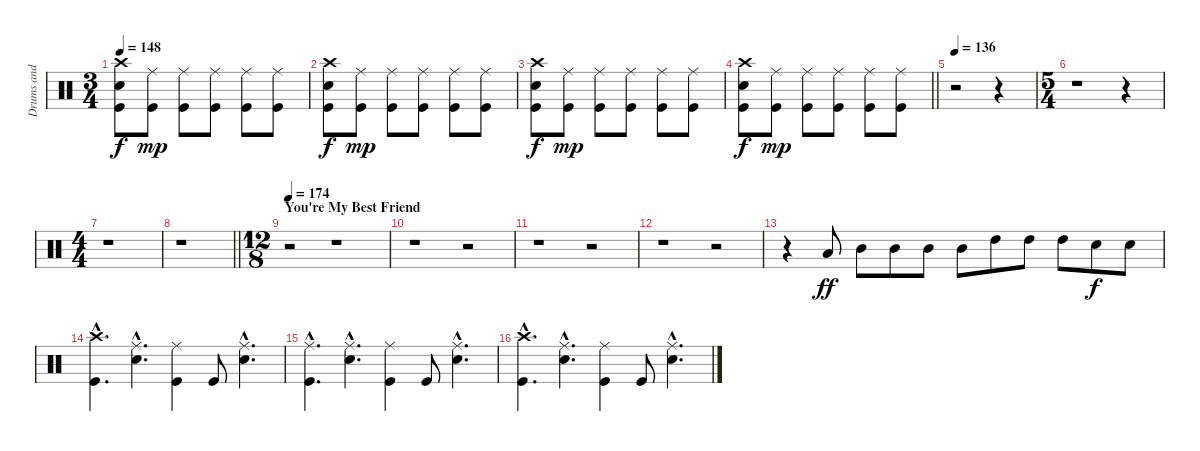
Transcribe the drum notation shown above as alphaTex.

\track ("Drums and percussion" "Drums and ") {instrument percussion}
\staff {score}
\articulation defaults
\ts (3 4)
\tempo 148
\clef neutral
\ks c
("Kick (hit)" "Electric Snare (hit)" "Crash high (hit)").8{dy f} ("Kick (hit)" "Ride (middle)").8{dy mp} ("Kick (hit)" "Ride (middle)").8 ("Kick (hit)" "Ride (middle)").8 ("Kick (hit)" "Ride (middle)").8 ("Kick (hit)" "Ride (middle)").8 |
("Kick (hit)" "Electric Snare (hit)" "Crash high (hit)").8{dy f} ("Kick (hit)" "Ride (middle)").8{dy mp} ("Kick (hit)" "Ride (middle)").8 ("Kick (hit)" "Ride (middle)").8 ("Kick (hit)" "Ride (middle)").8 ("Kick (hit)" "Ride (middle)").8 |
("Kick (hit)" "Electric Snare (hit)" "Crash high (hit)").8{dy f} ("Kick (hit)" "Ride (middle)").8{dy mp} ("Kick (hit)" "Ride (middle)").8 ("Kick (hit)" "Ride (middle)").8 ("Kick (hit)" "Ride (middle)").8 ("Kick (hit)" "Ride (middle)").8 |
\barLineRight lightlight
("Kick (hit)" "Electric Snare (hit)" "Crash high (hit)").8{dy f} ("Kick (hit)" "Ride (middle)").8{dy mp} ("Kick (hit)" "Ride (middle)").8 ("Kick (hit)" "Ride (middle)").8 ("Kick (hit)" "Ride (middle)").8 ("Kick (hit)" "Ride (middle)").8 |
\tempo 136
r.2 r.4 |
\ts (5 4)
r.1 r.4 |
\ts (4 4)
r.1{volume 12} |
\barLineRight lightlight
r.1 |
\ts (12 8)
\section ("" "You're My Best Friend")
\tempo 174
r.2{volume 12} r.1 |
r.1 r.2 |
r.1 r.2 |
r.1 r.2 |
r.4{volume 12} "Low Tom (hit)".8{dy ff} "Mid Tom (hit)".8 "Mid Tom (hit)".8 "Mid Tom (hit)".8 "Mid Tom (hit)".8 "High Tom (hit)".8 "High Tom (hit)".8 "High Tom (hit)".8 "Snare (hit) 2".8{dy f} "Snare (hit) 2".8 |
("Crash high (hit)"{hac} "Kick (hit)"{hac}).4{d volume 10} ("Ride (middle)"{hac} "Snare (hit) 2"{hac}).4{d} ("Ride (middle)" "Kick (hit)").4 "Kick (hit)".8 ("Ride (middle)"{hac} "Snare (hit) 2"{hac}).4{d} |
("Ride (middle)"{hac} "Kick (hit)"{hac}).4{d} ("Ride (middle)"{hac} "Snare (hit) 2"{hac}).4{d} ("Ride (middle)" "Kick (hit)").4 "Kick (hit)".8 ("Ride (middle)"{hac} "Snare (hit) 2"{hac}).4{d} |
("Crash high (hit)"{hac} "Kick (hit)"{hac}).4{d} ("Ride (middle)"{hac} "Snare (hit) 2"{hac}).4{d} ("Ride (middle)" "Kick (hit)").4 "Kick (hit)".8 ("Ride (middle)"{hac} "Snare (hit) 2"{hac}).4{d}
